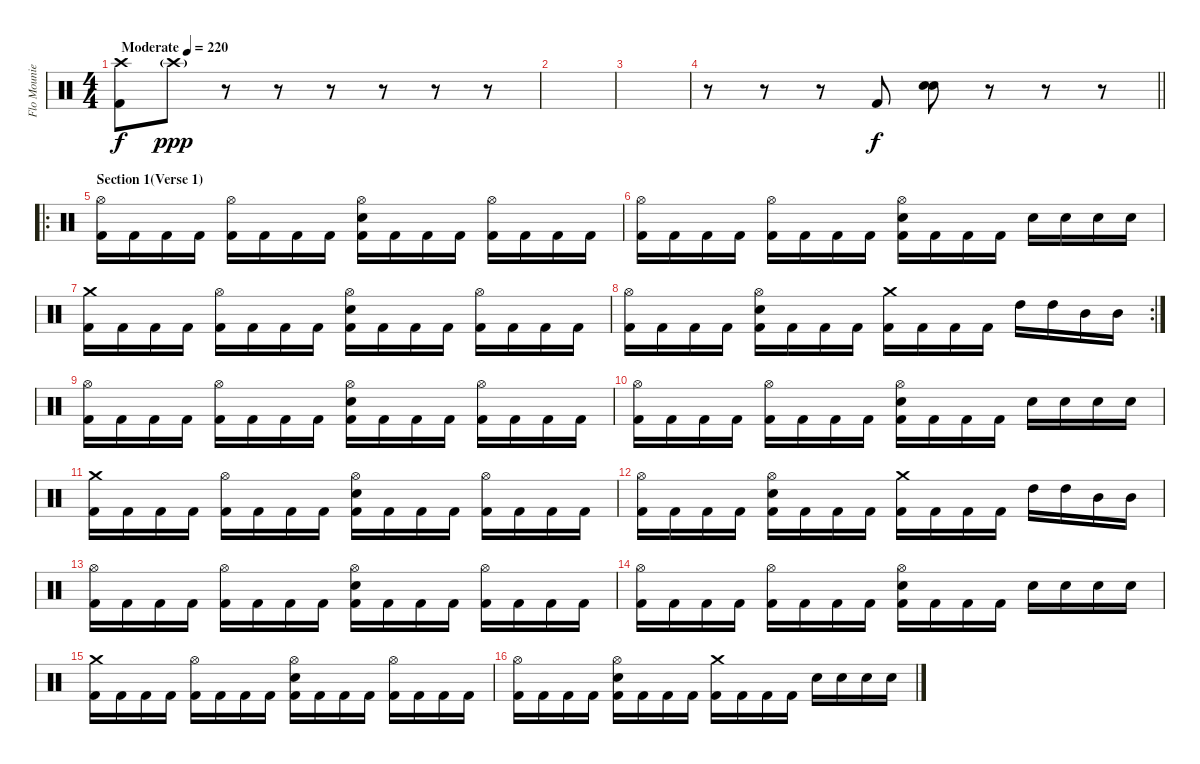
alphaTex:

\track ("Flo Mounier" "Flo Mounie") {instrument percussion}
\staff {score}
\articulation defaults
\ts (4 4)
\tempo (220 "Moderate")
\clef neutral
\ks c
("Crash high (hit)" "Kick (hit) 2").8{dy f} "Crash high (hit)"{g}.8{dy ppp} r.8 r.8 r.8 r.8 r.8 r.8 |
|
|
\barLineRight lightlight
r.8 r.8 r.8 "Kick (hit) 2".8{dy f} ("Electric Snare (hit)" "Electric Snare (hit)").8{bu 480} r.8 r.8 r.8 |
\ro
\section ("" "Section 1(Verse 1)")
("Hi-Hat (open)" "Kick (hit) 2").16 "Kick (hit) 2".16 "Kick (hit) 2".16 "Kick (hit) 2".16 ("Hi-Hat (open)" "Kick (hit) 2").16 "Kick (hit) 2".16 "Kick (hit) 2".16 "Kick (hit) 2".16 ("Hi-Hat (open)" "Electric Snare (hit)" "Kick (hit) 2").16 "Kick (hit) 2".16 "Kick (hit) 2".16 "Kick (hit) 2".16 ("Hi-Hat (open)" "Kick (hit) 2").16 "Kick (hit) 2".16 "Kick (hit) 2".16 "Kick (hit) 2".16 |
("Hi-Hat (open)" "Kick (hit) 2").16 "Kick (hit) 2".16 "Kick (hit) 2".16 "Kick (hit) 2".16 ("Hi-Hat (open)" "Kick (hit) 2").16 "Kick (hit) 2".16 "Kick (hit) 2".16 "Kick (hit) 2".16 ("Hi-Hat (open)" "Electric Snare (hit)" "Kick (hit) 2").16 "Kick (hit) 2".16 "Kick (hit) 2".16 "Kick (hit) 2".16 "Electric Snare (hit)".16 "Electric Snare (hit)".16 "Electric Snare (hit)".16 "Electric Snare (hit)".16 |
("Crash medium (hit)" "Kick (hit) 2").16 "Kick (hit) 2".16 "Kick (hit) 2".16 "Kick (hit) 2".16 ("Hi-Hat (open)" "Kick (hit) 2").16 "Kick (hit) 2".16 "Kick (hit) 2".16 "Kick (hit) 2".16 ("Hi-Hat (open)" "Electric Snare (hit)" "Kick (hit) 2").16 "Kick (hit) 2".16 "Kick (hit) 2".16 "Kick (hit) 2".16 ("Hi-Hat (open)" "Kick (hit) 2").16 "Kick (hit) 2".16 "Kick (hit) 2".16 "Kick (hit) 2".16 |
\rc 2
("Hi-Hat (open)" "Kick (hit) 2").16 "Kick (hit) 2".16 "Kick (hit) 2".16 "Kick (hit) 2".16 ("Hi-Hat (open)" "Electric Snare (hit)" "Kick (hit) 2").16 "Kick (hit) 2".16 "Kick (hit) 2".16 "Kick (hit) 2".16 ("Crash medium (hit)" "Kick (hit) 2").16 "Kick (hit) 2".16 "Kick (hit) 2".16 "Kick (hit) 2".16 "High Tom (hit)".16 "High Tom (hit)".16 "Mid Tom (hit)".16 "Mid Tom (hit)".16 |
("Hi-Hat (open)" "Kick (hit) 2").16 "Kick (hit) 2".16 "Kick (hit) 2".16 "Kick (hit) 2".16 ("Hi-Hat (open)" "Kick (hit) 2").16 "Kick (hit) 2".16 "Kick (hit) 2".16 "Kick (hit) 2".16 ("Hi-Hat (open)" "Electric Snare (hit)" "Kick (hit) 2").16 "Kick (hit) 2".16 "Kick (hit) 2".16 "Kick (hit) 2".16 ("Hi-Hat (open)" "Kick (hit) 2").16 "Kick (hit) 2".16 "Kick (hit) 2".16 "Kick (hit) 2".16 |
("Hi-Hat (open)" "Kick (hit) 2").16 "Kick (hit) 2".16 "Kick (hit) 2".16 "Kick (hit) 2".16 ("Hi-Hat (open)" "Kick (hit) 2").16 "Kick (hit) 2".16 "Kick (hit) 2".16 "Kick (hit) 2".16 ("Hi-Hat (open)" "Electric Snare (hit)" "Kick (hit) 2").16 "Kick (hit) 2".16 "Kick (hit) 2".16 "Kick (hit) 2".16 "Electric Snare (hit)".16 "Electric Snare (hit)".16 "Electric Snare (hit)".16 "Electric Snare (hit)".16 |
("Crash medium (hit)" "Kick (hit) 2").16 "Kick (hit) 2".16 "Kick (hit) 2".16 "Kick (hit) 2".16 ("Hi-Hat (open)" "Kick (hit) 2").16 "Kick (hit) 2".16 "Kick (hit) 2".16 "Kick (hit) 2".16 ("Hi-Hat (open)" "Electric Snare (hit)" "Kick (hit) 2").16 "Kick (hit) 2".16 "Kick (hit) 2".16 "Kick (hit) 2".16 ("Hi-Hat (open)" "Kick (hit) 2").16 "Kick (hit) 2".16 "Kick (hit) 2".16 "Kick (hit) 2".16 |
("Hi-Hat (open)" "Kick (hit) 2").16 "Kick (hit) 2".16 "Kick (hit) 2".16 "Kick (hit) 2".16 ("Hi-Hat (open)" "Electric Snare (hit)" "Kick (hit) 2").16 "Kick (hit) 2".16 "Kick (hit) 2".16 "Kick (hit) 2".16 ("Crash medium (hit)" "Kick (hit) 2").16 "Kick (hit) 2".16 "Kick (hit) 2".16 "Kick (hit) 2".16 "High Tom (hit)".16 "High Tom (hit)".16 "Mid Tom (hit)".16 "Mid Tom (hit)".16 |
("Hi-Hat (open)" "Kick (hit) 2").16 "Kick (hit) 2".16 "Kick (hit) 2".16 "Kick (hit) 2".16 ("Hi-Hat (open)" "Kick (hit) 2").16 "Kick (hit) 2".16 "Kick (hit) 2".16 "Kick (hit) 2".16 ("Hi-Hat (open)" "Electric Snare (hit)" "Kick (hit) 2").16 "Kick (hit) 2".16 "Kick (hit) 2".16 "Kick (hit) 2".16 ("Hi-Hat (open)" "Kick (hit) 2").16 "Kick (hit) 2".16 "Kick (hit) 2".16 "Kick (hit) 2".16 |
("Hi-Hat (open)" "Kick (hit) 2").16 "Kick (hit) 2".16 "Kick (hit) 2".16 "Kick (hit) 2".16 ("Hi-Hat (open)" "Kick (hit) 2").16 "Kick (hit) 2".16 "Kick (hit) 2".16 "Kick (hit) 2".16 ("Hi-Hat (open)" "Electric Snare (hit)" "Kick (hit) 2").16 "Kick (hit) 2".16 "Kick (hit) 2".16 "Kick (hit) 2".16 "Electric Snare (hit)".16 "Electric Snare (hit)".16 "Electric Snare (hit)".16 "Electric Snare (hit)".16 |
("Crash medium (hit)" "Kick (hit) 2").16 "Kick (hit) 2".16 "Kick (hit) 2".16 "Kick (hit) 2".16 ("Hi-Hat (open)" "Kick (hit) 2").16 "Kick (hit) 2".16 "Kick (hit) 2".16 "Kick (hit) 2".16 ("Hi-Hat (open)" "Electric Snare (hit)" "Kick (hit) 2").16 "Kick (hit) 2".16 "Kick (hit) 2".16 "Kick (hit) 2".16 ("Hi-Hat (open)" "Kick (hit) 2").16 "Kick (hit) 2".16 "Kick (hit) 2".16 "Kick (hit) 2".16 |
("Hi-Hat (open)" "Kick (hit) 2").16 "Kick (hit) 2".16 "Kick (hit) 2".16 "Kick (hit) 2".16 ("Hi-Hat (open)" "Electric Snare (hit)" "Kick (hit) 2").16 "Kick (hit) 2".16 "Kick (hit) 2".16 "Kick (hit) 2".16 ("Crash medium (hit)" "Kick (hit) 2").16 "Kick (hit) 2".16 "Kick (hit) 2".16 "Kick (hit) 2".16 "Electric Snare (hit)".16 "Electric Snare (hit)".16 "Electric Snare (hit)".16 "Electric Snare (hit)".16
